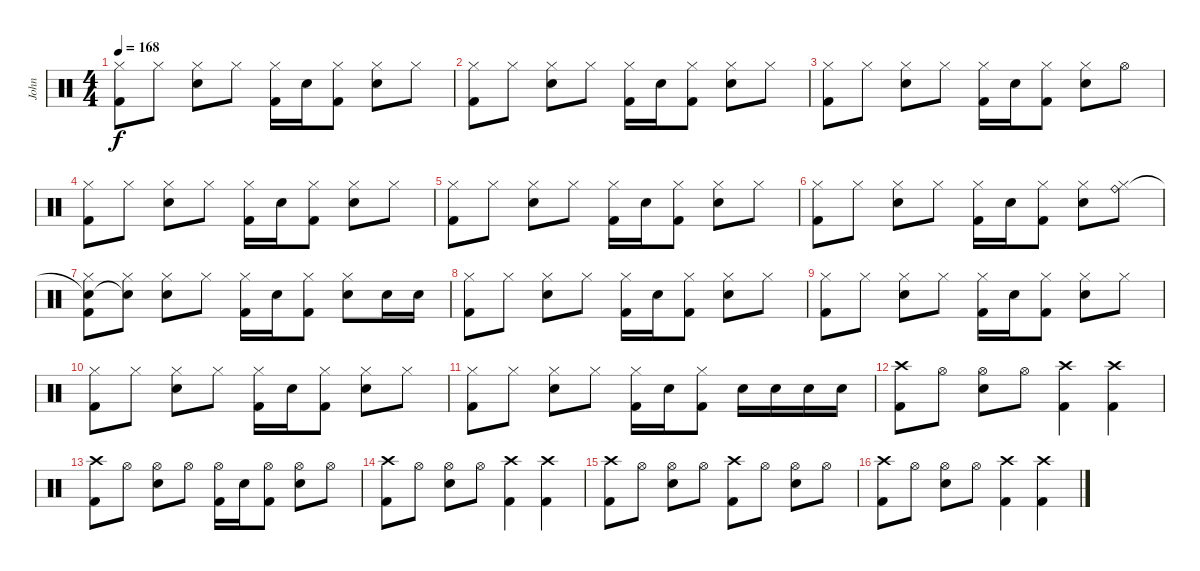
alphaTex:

\track ("John" "John") {instrument percussion}
\staff {score}
\articulation defaults
\ts (4 4)
\tempo 168
\clef neutral
\ks c
("Hi-Hat (closed)" "Kick (hit) 2").8{dy f} "Hi-Hat (closed)".8 ("Hi-Hat (closed)" "Electric Snare (hit)").8 "Hi-Hat (closed)".8 ("Hi-Hat (closed)" "Kick (hit) 2").16 "Electric Snare (hit)".16 ("Hi-Hat (closed)" "Kick (hit) 2").8 ("Hi-Hat (closed)" "Electric Snare (hit)").8 "Hi-Hat (closed)".8 |
("Hi-Hat (closed)" "Kick (hit) 2").8 "Hi-Hat (closed)".8 ("Hi-Hat (closed)" "Electric Snare (hit)").8 "Hi-Hat (closed)".8 ("Hi-Hat (closed)" "Kick (hit) 2").16 "Electric Snare (hit)".16 ("Hi-Hat (closed)" "Kick (hit) 2").8 ("Hi-Hat (closed)" "Electric Snare (hit)").8 "Hi-Hat (closed)".8 |
("Hi-Hat (closed)" "Kick (hit) 2").8 "Hi-Hat (closed)".8 ("Hi-Hat (closed)" "Electric Snare (hit)").8 "Hi-Hat (closed)".8 ("Hi-Hat (closed)" "Kick (hit) 2").16 "Electric Snare (hit)".16 ("Hi-Hat (closed)" "Kick (hit) 2").8 ("Hi-Hat (closed)" "Electric Snare (hit)").8 "Hi-Hat (open)".8 |
("Hi-Hat (closed)" "Kick (hit) 2").8 "Hi-Hat (closed)".8 ("Hi-Hat (closed)" "Electric Snare (hit)").8 "Hi-Hat (closed)".8 ("Hi-Hat (closed)" "Kick (hit) 2").16 "Electric Snare (hit)".16 ("Hi-Hat (closed)" "Kick (hit) 2").8 ("Hi-Hat (closed)" "Electric Snare (hit)").8 "Hi-Hat (closed)".8 |
("Hi-Hat (closed)" "Kick (hit) 2").8 "Hi-Hat (closed)".8 ("Hi-Hat (closed)" "Electric Snare (hit)").8 "Hi-Hat (closed)".8 ("Hi-Hat (closed)" "Kick (hit) 2").16 "Electric Snare (hit)".16 ("Hi-Hat (closed)" "Kick (hit) 2").8 ("Hi-Hat (closed)" "Electric Snare (hit)").8 "Hi-Hat (closed)".8 |
("Hi-Hat (closed)" "Kick (hit) 2").8 "Hi-Hat (closed)".8 ("Hi-Hat (closed)" "Electric Snare (hit)").8 "Hi-Hat (closed)".8 ("Hi-Hat (closed)" "Kick (hit) 2").16 "Electric Snare (hit)".16 ("Hi-Hat (closed)" "Kick (hit) 2").8 ("Hi-Hat (closed)" "Electric Snare (hit)").8 ("Ride (bell)" "Hi-Hat (closed)").8 |
("Snare (hit)"{t} "Hi-Hat (closed)" "Kick (hit) 2").8 ("Snare (hit)"{t} "Hi-Hat (closed)").8 ("Hi-Hat (closed)" "Electric Snare (hit)").8 "Hi-Hat (closed)".8 ("Hi-Hat (closed)" "Kick (hit) 2").16 "Electric Snare (hit)".16 ("Hi-Hat (closed)" "Kick (hit) 2").8 ("Hi-Hat (closed)" "Electric Snare (hit)").8 "Electric Snare (hit)".16 "Electric Snare (hit)".16 |
("Hi-Hat (closed)" "Kick (hit) 2").8 "Hi-Hat (closed)".8 ("Hi-Hat (closed)" "Electric Snare (hit)").8 "Hi-Hat (closed)".8 ("Hi-Hat (closed)" "Kick (hit) 2").16 "Electric Snare (hit)".16 ("Hi-Hat (closed)" "Kick (hit) 2").8 ("Hi-Hat (closed)" "Electric Snare (hit)").8 "Hi-Hat (closed)".8 |
("Hi-Hat (closed)" "Kick (hit) 2").8 "Hi-Hat (closed)".8 ("Hi-Hat (closed)" "Electric Snare (hit)").8 "Hi-Hat (closed)".8 ("Hi-Hat (closed)" "Kick (hit) 2").16 "Electric Snare (hit)".16 ("Hi-Hat (closed)" "Kick (hit) 2").8 ("Hi-Hat (closed)" "Electric Snare (hit)").8 "Hi-Hat (closed)".8 |
("Hi-Hat (closed)" "Kick (hit) 2").8 "Hi-Hat (closed)".8 ("Hi-Hat (closed)" "Electric Snare (hit)").8 "Hi-Hat (closed)".8 ("Hi-Hat (closed)" "Kick (hit) 2").16 "Electric Snare (hit)".16 ("Hi-Hat (closed)" "Kick (hit) 2").8 ("Hi-Hat (closed)" "Electric Snare (hit)").8 "Hi-Hat (closed)".8 |
("Hi-Hat (closed)" "Kick (hit) 2").8 "Hi-Hat (closed)".8 ("Hi-Hat (closed)" "Electric Snare (hit)").8 "Hi-Hat (closed)".8 ("Hi-Hat (closed)" "Kick (hit) 2").16 "Electric Snare (hit)".16 ("Hi-Hat (closed)" "Kick (hit) 2").8 "Electric Snare (hit)".16 "Electric Snare (hit)".16 "Electric Snare (hit)".16 "Electric Snare (hit)".16 |
("Crash high (hit)" "Kick (hit) 2").8 "Hi-Hat (open)".8 ("Hi-Hat (open)" "Electric Snare (hit)").8 "Hi-Hat (open)".8 ("Crash high (hit)" "Kick (hit) 2").4 ("Crash high (hit)" "Kick (hit) 2").4 |
("Crash high (hit)" "Kick (hit) 2").8 "Hi-Hat (open)".8 ("Hi-Hat (open)" "Electric Snare (hit)").8 "Hi-Hat (open)".8 ("Hi-Hat (open)" "Kick (hit) 2").16 "Electric Snare (hit)".16 ("Hi-Hat (open)" "Kick (hit) 2").8 ("Hi-Hat (open)" "Electric Snare (hit)").8 "Hi-Hat (open)".8 |
("Crash high (hit)" "Kick (hit) 2").8 "Hi-Hat (open)".8 ("Hi-Hat (open)" "Electric Snare (hit)").8 "Hi-Hat (open)".8 ("Crash high (hit)" "Kick (hit) 2").4 ("Crash high (hit)" "Kick (hit) 2").4 |
("Crash high (hit)" "Kick (hit) 2").8 "Hi-Hat (open)".8 ("Hi-Hat (open)" "Electric Snare (hit)").8 "Hi-Hat (open)".8 ("Crash high (hit)" "Kick (hit) 2").8 "Hi-Hat (open)".8 ("Hi-Hat (open)" "Electric Snare (hit)").8 "Hi-Hat (open)".8 |
("Crash high (hit)" "Kick (hit) 2").8 "Hi-Hat (open)".8 ("Hi-Hat (open)" "Electric Snare (hit)").8 "Hi-Hat (open)".8 ("Crash high (hit)" "Kick (hit) 2").4 ("Crash high (hit)" "Kick (hit) 2").4
